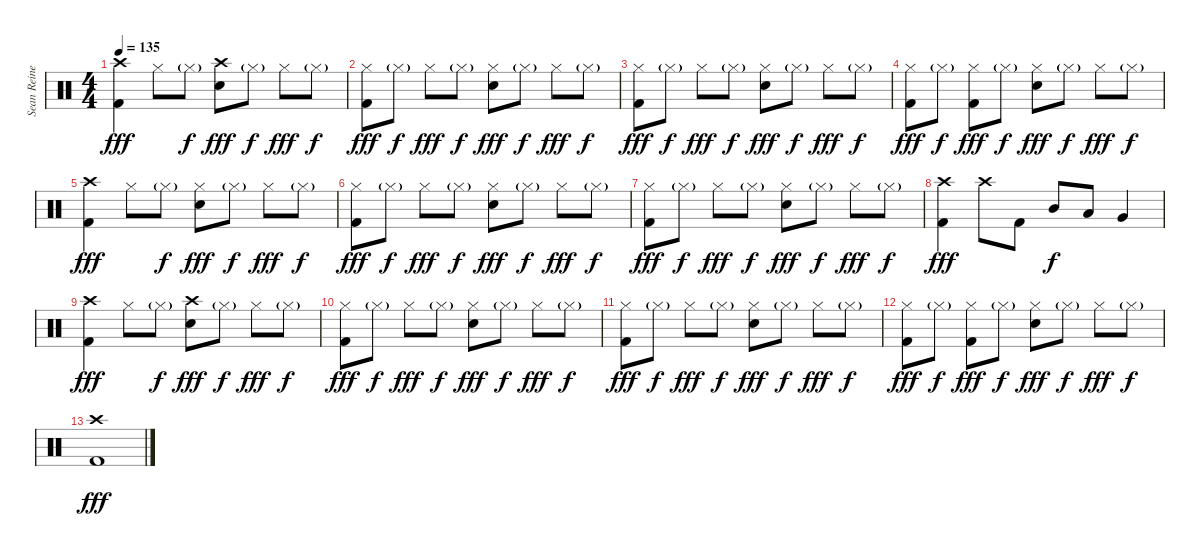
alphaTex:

\track ("Sean Reinert" "Sean Reine") {instrument percussion}
\staff {score}
\articulation defaults
\ts (4 4)
\tempo 135
\clef neutral
\ks c
("Crash high (hit)" "Kick (hit) 2").4{dy fff} "Hi-Hat (closed)".8 "Hi-Hat (closed)"{g}.8{dy f} ("Crash high (hit)" "Snare (hit) 2").8{dy fff} "Hi-Hat (closed)"{g}.8{dy f} "Hi-Hat (closed)".8{dy fff} "Hi-Hat (closed)"{g}.8{dy f} |
("Hi-Hat (closed)" "Kick (hit) 2").8{dy fff} "Hi-Hat (closed)"{g}.8{dy f} "Hi-Hat (closed)".8{dy fff} "Hi-Hat (closed)"{g}.8{dy f} ("Hi-Hat (closed)" "Snare (hit) 2").8{dy fff} "Hi-Hat (closed)"{g}.8{dy f} "Hi-Hat (closed)".8{dy fff} "Hi-Hat (closed)"{g}.8{dy f} |
("Hi-Hat (closed)" "Kick (hit) 2").8{dy fff} "Hi-Hat (closed)"{g}.8{dy f} "Hi-Hat (closed)".8{dy fff} "Hi-Hat (closed)"{g}.8{dy f} ("Hi-Hat (closed)" "Snare (hit) 2").8{dy fff} "Hi-Hat (closed)"{g}.8{dy f} "Hi-Hat (closed)".8{dy fff} "Hi-Hat (closed)"{g}.8{dy f} |
("Hi-Hat (closed)" "Kick (hit) 2").8{dy fff} "Hi-Hat (closed)"{g}.8{dy f} ("Hi-Hat (closed)" "Kick (hit) 2").8{dy fff} "Hi-Hat (closed)"{g}.8{dy f} ("Hi-Hat (closed)" "Snare (hit) 2").8{dy fff} "Hi-Hat (closed)"{g}.8{dy f} "Hi-Hat (closed)".8{dy fff} "Hi-Hat (closed)"{g}.8{dy f} |
("Crash high (hit)" "Kick (hit) 2").4{dy fff} "Hi-Hat (closed)".8 "Hi-Hat (closed)"{g}.8{dy f} ("Hi-Hat (closed)" "Snare (hit) 2").8{dy fff} "Hi-Hat (closed)"{g}.8{dy f} "Hi-Hat (closed)".8{dy fff} "Hi-Hat (closed)"{g}.8{dy f} |
("Hi-Hat (closed)" "Kick (hit) 2").8{dy fff} "Hi-Hat (closed)"{g}.8{dy f} "Hi-Hat (closed)".8{dy fff} "Hi-Hat (closed)"{g}.8{dy f} ("Hi-Hat (closed)" "Snare (hit) 2").8{dy fff} "Hi-Hat (closed)"{g}.8{dy f} "Hi-Hat (closed)".8{dy fff} "Hi-Hat (closed)"{g}.8{dy f} |
("Hi-Hat (closed)" "Kick (hit) 2").8{dy fff} "Hi-Hat (closed)"{g}.8{dy f} "Hi-Hat (closed)".8{dy fff} "Hi-Hat (closed)"{g}.8{dy f} ("Hi-Hat (closed)" "Snare (hit) 2").8{dy fff} "Hi-Hat (closed)"{g}.8{dy f} "Hi-Hat (closed)".8{dy fff} "Hi-Hat (closed)"{g}.8{dy f} |
("Crash high (hit)" "Kick (hit) 2").4{dy fff} "Crash high (hit)".8 "Kick (hit) 2".8 "Mid Tom (hit)".8{dy f} "Low Tom (hit)".8 "Very Low Tom (hit)".4 |
("Crash high (hit)" "Kick (hit) 2").4{dy fff} "Hi-Hat (closed)".8 "Hi-Hat (closed)"{g}.8{dy f} ("Crash high (hit)" "Snare (hit) 2").8{dy fff} "Hi-Hat (closed)"{g}.8{dy f} "Hi-Hat (closed)".8{dy fff} "Hi-Hat (closed)"{g}.8{dy f} |
("Hi-Hat (closed)" "Kick (hit) 2").8{dy fff} "Hi-Hat (closed)"{g}.8{dy f} "Hi-Hat (closed)".8{dy fff} "Hi-Hat (closed)"{g}.8{dy f} ("Hi-Hat (closed)" "Snare (hit) 2").8{dy fff} "Hi-Hat (closed)"{g}.8{dy f} "Hi-Hat (closed)".8{dy fff} "Hi-Hat (closed)"{g}.8{dy f} |
("Hi-Hat (closed)" "Kick (hit) 2").8{dy fff} "Hi-Hat (closed)"{g}.8{dy f} "Hi-Hat (closed)".8{dy fff} "Hi-Hat (closed)"{g}.8{dy f} ("Hi-Hat (closed)" "Snare (hit) 2").8{dy fff} "Hi-Hat (closed)"{g}.8{dy f} "Hi-Hat (closed)".8{dy fff} "Hi-Hat (closed)"{g}.8{dy f} |
("Hi-Hat (closed)" "Kick (hit) 2").8{dy fff} "Hi-Hat (closed)"{g}.8{dy f} ("Hi-Hat (closed)" "Kick (hit) 2").8{dy fff} "Hi-Hat (closed)"{g}.8{dy f} ("Hi-Hat (closed)" "Snare (hit) 2").8{dy fff} "Hi-Hat (closed)"{g}.8{dy f} "Hi-Hat (closed)".8{dy fff} "Hi-Hat (closed)"{g}.8{dy f} |
("Crash high (hit)" "Kick (hit) 2").1{dy fff}
